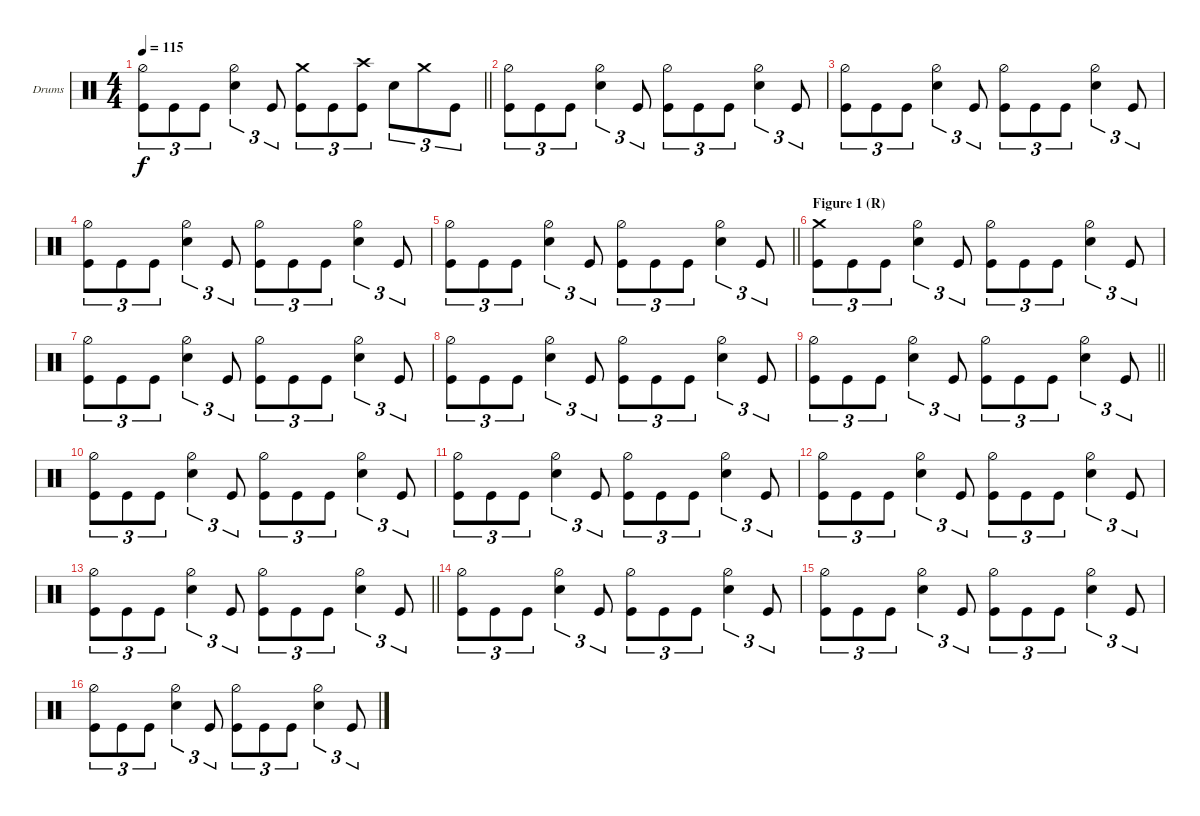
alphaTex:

\defaultSystemsLayout 4
\bracketExtendMode groupsimilarinstruments
\firstSystemTrackNameOrientation horizontal
\otherSystemsTrackNameOrientation horizontal
\track ("Drums" "Drums") {instrument percussion}
\staff {score}
\articulation defaults
\ts (4 4)
\tempo 115
\clef neutral
\barLineRight lightlight
\ks aminor
("Kick (hit)" "Hi-Hat (half)").8{tu (3 2) dy f} "Kick (hit)".8{tu (3 2)} "Kick (hit)".8{tu (3 2)} ("Snare (hit) 2" "Hi-Hat (half)").4{tu (3 2)} "Kick (hit)".8{tu (3 2)} ("Crash medium (hit)" "Kick (hit)").8{tu (3 2)} "Kick (hit)".8{tu (3 2)} ("Crash high (hit)" "Kick (hit)").8{tu (3 2)} "Snare (hit) 2".8{tu (3 2)} "Crash medium (hit)".8{tu (3 2)} "Kick (hit)".8{tu (3 2)} |
("Kick (hit)" "Hi-Hat (half)").8{tu (3 2)} "Kick (hit)".8{tu (3 2)} "Kick (hit)".8{tu (3 2)} ("Snare (hit) 2" "Hi-Hat (half)").4{tu (3 2)} "Kick (hit)".8{tu (3 2)} ("Kick (hit)" "Hi-Hat (half)").8{tu (3 2)} "Kick (hit)".8{tu (3 2)} "Kick (hit)".8{tu (3 2)} ("Snare (hit) 2" "Hi-Hat (half)").4{tu (3 2)} "Kick (hit)".8{tu (3 2)} |
("Kick (hit)" "Hi-Hat (half)").8{tu (3 2)} "Kick (hit)".8{tu (3 2)} "Kick (hit)".8{tu (3 2)} ("Snare (hit) 2" "Hi-Hat (half)").4{tu (3 2)} "Kick (hit)".8{tu (3 2)} ("Kick (hit)" "Hi-Hat (half)").8{tu (3 2)} "Kick (hit)".8{tu (3 2)} "Kick (hit)".8{tu (3 2)} ("Snare (hit) 2" "Hi-Hat (half)").4{tu (3 2)} "Kick (hit)".8{tu (3 2)} |
("Kick (hit)" "Hi-Hat (half)").8{tu (3 2)} "Kick (hit)".8{tu (3 2)} "Kick (hit)".8{tu (3 2)} ("Snare (hit) 2" "Hi-Hat (half)").4{tu (3 2)} "Kick (hit)".8{tu (3 2)} ("Kick (hit)" "Hi-Hat (half)").8{tu (3 2)} "Kick (hit)".8{tu (3 2)} "Kick (hit)".8{tu (3 2)} ("Snare (hit) 2" "Hi-Hat (half)").4{tu (3 2)} "Kick (hit)".8{tu (3 2)} |
\barLineRight lightlight
("Kick (hit)" "Hi-Hat (half)").8{tu (3 2)} "Kick (hit)".8{tu (3 2)} "Kick (hit)".8{tu (3 2)} ("Snare (hit) 2" "Hi-Hat (half)").4{tu (3 2)} "Kick (hit)".8{tu (3 2)} ("Kick (hit)" "Hi-Hat (half)").8{tu (3 2)} "Kick (hit)".8{tu (3 2)} "Kick (hit)".8{tu (3 2)} ("Snare (hit) 2" "Hi-Hat (half)").4{tu (3 2)} "Kick (hit)".8{tu (3 2)} |
\section ("" "Figure 1 (R)")
("Kick (hit)" "Crash medium (hit)").8{tu (3 2)} "Kick (hit)".8{tu (3 2)} "Kick (hit)".8{tu (3 2)} ("Snare (hit) 2" "Hi-Hat (half)").4{tu (3 2)} "Kick (hit)".8{tu (3 2)} ("Kick (hit)" "Hi-Hat (half)").8{tu (3 2)} "Kick (hit)".8{tu (3 2)} "Kick (hit)".8{tu (3 2)} ("Snare (hit) 2" "Hi-Hat (half)").4{tu (3 2)} "Kick (hit)".8{tu (3 2)} |
("Kick (hit)" "Hi-Hat (half)").8{tu (3 2)} "Kick (hit)".8{tu (3 2)} "Kick (hit)".8{tu (3 2)} ("Snare (hit) 2" "Hi-Hat (half)").4{tu (3 2)} "Kick (hit)".8{tu (3 2)} ("Kick (hit)" "Hi-Hat (half)").8{tu (3 2)} "Kick (hit)".8{tu (3 2)} "Kick (hit)".8{tu (3 2)} ("Snare (hit) 2" "Hi-Hat (half)").4{tu (3 2)} "Kick (hit)".8{tu (3 2)} |
("Kick (hit)" "Hi-Hat (half)").8{tu (3 2)} "Kick (hit)".8{tu (3 2)} "Kick (hit)".8{tu (3 2)} ("Snare (hit) 2" "Hi-Hat (half)").4{tu (3 2)} "Kick (hit)".8{tu (3 2)} ("Kick (hit)" "Hi-Hat (half)").8{tu (3 2)} "Kick (hit)".8{tu (3 2)} "Kick (hit)".8{tu (3 2)} ("Snare (hit) 2" "Hi-Hat (half)").4{tu (3 2)} "Kick (hit)".8{tu (3 2)} |
\barLineRight lightlight
("Kick (hit)" "Hi-Hat (half)").8{tu (3 2)} "Kick (hit)".8{tu (3 2)} "Kick (hit)".8{tu (3 2)} ("Snare (hit) 2" "Hi-Hat (half)").4{tu (3 2)} "Kick (hit)".8{tu (3 2)} ("Kick (hit)" "Hi-Hat (half)").8{tu (3 2)} "Kick (hit)".8{tu (3 2)} "Kick (hit)".8{tu (3 2)} ("Snare (hit) 2" "Hi-Hat (half)").4{tu (3 2)} "Kick (hit)".8{tu (3 2)} |
("Kick (hit)" "Hi-Hat (half)").8{tu (3 2)} "Kick (hit)".8{tu (3 2)} "Kick (hit)".8{tu (3 2)} ("Snare (hit) 2" "Hi-Hat (half)").4{tu (3 2)} "Kick (hit)".8{tu (3 2)} ("Kick (hit)" "Hi-Hat (half)").8{tu (3 2)} "Kick (hit)".8{tu (3 2)} "Kick (hit)".8{tu (3 2)} ("Snare (hit) 2" "Hi-Hat (half)").4{tu (3 2)} "Kick (hit)".8{tu (3 2)} |
("Kick (hit)" "Hi-Hat (half)").8{tu (3 2)} "Kick (hit)".8{tu (3 2)} "Kick (hit)".8{tu (3 2)} ("Snare (hit) 2" "Hi-Hat (half)").4{tu (3 2)} "Kick (hit)".8{tu (3 2)} ("Kick (hit)" "Hi-Hat (half)").8{tu (3 2)} "Kick (hit)".8{tu (3 2)} "Kick (hit)".8{tu (3 2)} ("Snare (hit) 2" "Hi-Hat (half)").4{tu (3 2)} "Kick (hit)".8{tu (3 2)} |
("Kick (hit)" "Hi-Hat (half)").8{tu (3 2)} "Kick (hit)".8{tu (3 2)} "Kick (hit)".8{tu (3 2)} ("Snare (hit) 2" "Hi-Hat (half)").4{tu (3 2)} "Kick (hit)".8{tu (3 2)} ("Kick (hit)" "Hi-Hat (half)").8{tu (3 2)} "Kick (hit)".8{tu (3 2)} "Kick (hit)".8{tu (3 2)} ("Snare (hit) 2" "Hi-Hat (half)").4{tu (3 2)} "Kick (hit)".8{tu (3 2)} |
\barLineRight lightlight
("Kick (hit)" "Hi-Hat (half)").8{tu (3 2)} "Kick (hit)".8{tu (3 2)} "Kick (hit)".8{tu (3 2)} ("Snare (hit) 2" "Hi-Hat (half)").4{tu (3 2)} "Kick (hit)".8{tu (3 2)} ("Kick (hit)" "Hi-Hat (half)").8{tu (3 2)} "Kick (hit)".8{tu (3 2)} "Kick (hit)".8{tu (3 2)} ("Snare (hit) 2" "Hi-Hat (half)").4{tu (3 2)} "Kick (hit)".8{tu (3 2)} |
("Kick (hit)" "Hi-Hat (half)").8{tu (3 2)} "Kick (hit)".8{tu (3 2)} "Kick (hit)".8{tu (3 2)} ("Snare (hit) 2" "Hi-Hat (half)").4{tu (3 2)} "Kick (hit)".8{tu (3 2)} ("Kick (hit)" "Hi-Hat (half)").8{tu (3 2)} "Kick (hit)".8{tu (3 2)} "Kick (hit)".8{tu (3 2)} ("Snare (hit) 2" "Hi-Hat (half)").4{tu (3 2)} "Kick (hit)".8{tu (3 2)} |
("Kick (hit)" "Hi-Hat (half)").8{tu (3 2)} "Kick (hit)".8{tu (3 2)} "Kick (hit)".8{tu (3 2)} ("Snare (hit) 2" "Hi-Hat (half)").4{tu (3 2)} "Kick (hit)".8{tu (3 2)} ("Kick (hit)" "Hi-Hat (half)").8{tu (3 2)} "Kick (hit)".8{tu (3 2)} "Kick (hit)".8{tu (3 2)} ("Snare (hit) 2" "Hi-Hat (half)").4{tu (3 2)} "Kick (hit)".8{tu (3 2)} |
("Kick (hit)" "Hi-Hat (half)").8{tu (3 2)} "Kick (hit)".8{tu (3 2)} "Kick (hit)".8{tu (3 2)} ("Snare (hit) 2" "Hi-Hat (half)").4{tu (3 2)} "Kick (hit)".8{tu (3 2)} ("Kick (hit)" "Hi-Hat (half)").8{tu (3 2)} "Kick (hit)".8{tu (3 2)} "Kick (hit)".8{tu (3 2)} ("Snare (hit) 2" "Hi-Hat (half)").4{tu (3 2)} "Kick (hit)".8{tu (3 2)}
